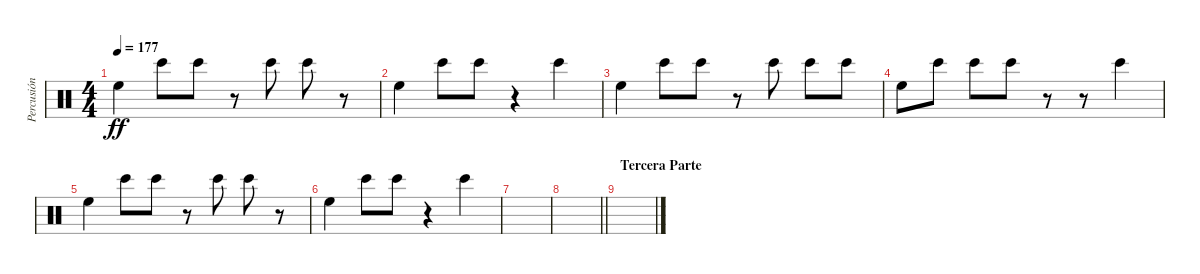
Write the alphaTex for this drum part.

\track ("Percusión" "Percusión") {instrument percussion}
\staff {score}
\articulation defaults
\ts (4 4)
\tempo 177
\clef neutral
\ks c "High Floor Tom (hit)".4{dy ff} "Bongo High (hit)".8 "Bongo High (hit)".8
r.8 "Bongo High (hit)".8 "Bongo High (hit)".8 r.8 |
"High Floor Tom (hit)".4 "Bongo High (hit)".8 "Bongo High (hit)".8 r.4 "Bongo High (hit)".4 |
"High Floor Tom (hit)".4 "Bongo High (hit)".8 "Bongo High (hit)".8 r.8 "Bongo High (hit)".8 "Bongo High (hit)".8 "Bongo High (hit)".8 |
"High Floor Tom (hit)".8 "Bongo High (hit)".8 "Bongo High (hit)".8 "Bongo High (hit)".8 r.8 r.8 "Bongo High (hit)".4 |
"High Floor Tom (hit)".4 "Bongo High (hit)".8 "Bongo High (hit)".8 r.8 "Bongo High (hit)".8 "Bongo High (hit)".8 r.8 |
"High Floor Tom (hit)".4 "Bongo High (hit)".8 "Bongo High (hit)".8 r.4 "Bongo High (hit)".4 |
|
\barLineRight lightlight
|
\section ("" "Tercera Parte")
